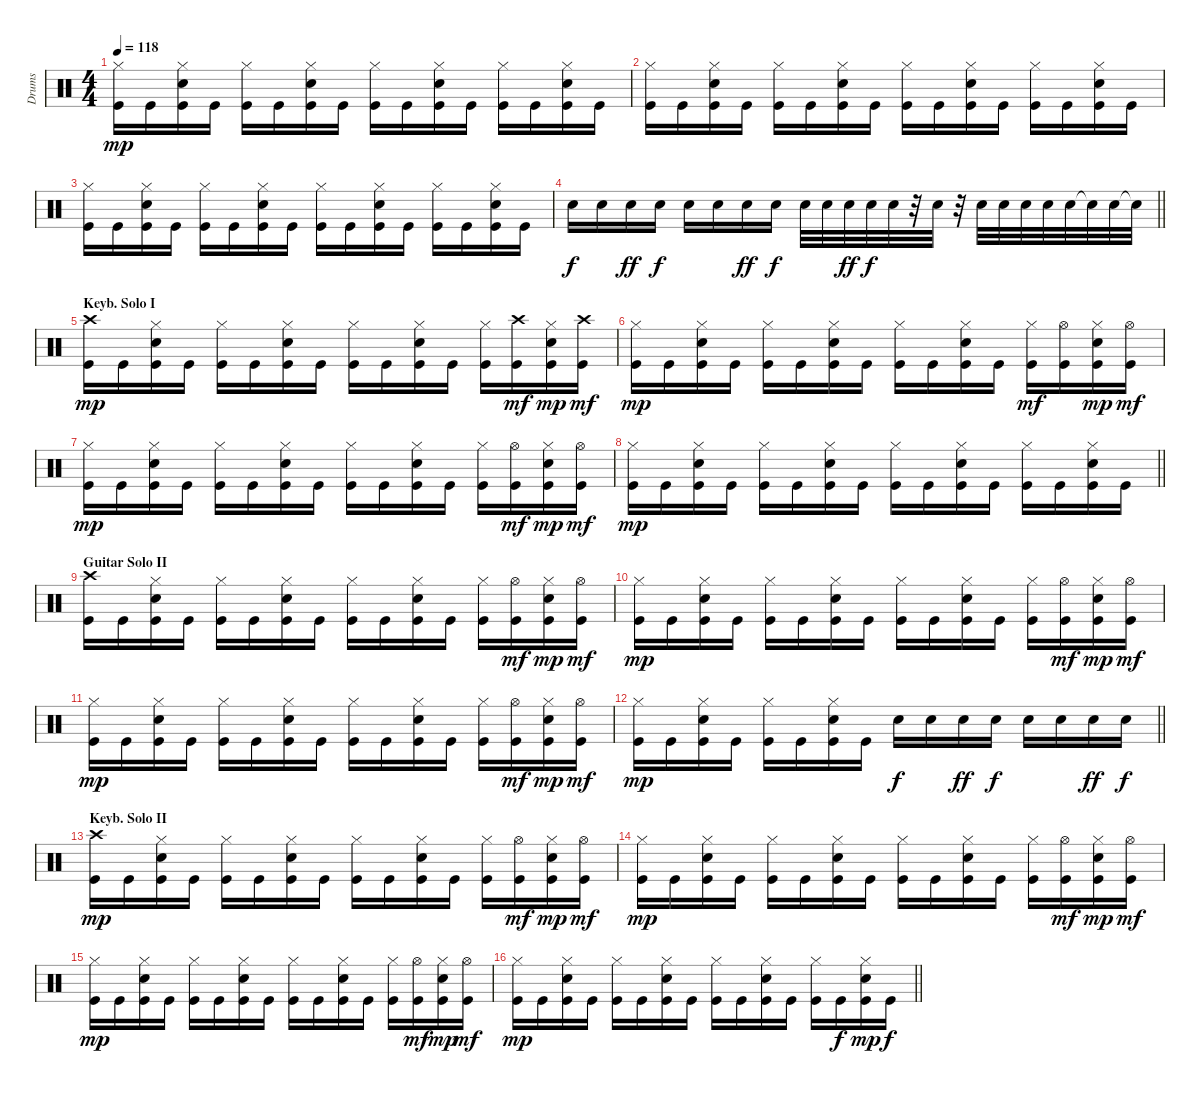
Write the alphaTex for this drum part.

\track ("Drums" "Drums") {instrument percussion}
\staff {score}
\articulation defaults
\ts (4 4)
\tempo 118
\clef neutral
\ks c
("Hi-Hat (closed)" "Kick (hit)").16{dy mp} "Kick (hit)".16 ("Hi-Hat (closed)" "Electric Snare (hit)" "Kick (hit)").16 "Kick (hit)".16 ("Hi-Hat (closed)" "Kick (hit)").16 "Kick (hit)".16 ("Hi-Hat (closed)" "Electric Snare (hit)" "Kick (hit)").16 "Kick (hit)".16 ("Hi-Hat (closed)" "Kick (hit)").16 "Kick (hit)".16 ("Hi-Hat (closed)" "Electric Snare (hit)" "Kick (hit)").16 "Kick (hit)".16 ("Hi-Hat (closed)" "Kick (hit)").16 "Kick (hit)".16 ("Hi-Hat (closed)" "Electric Snare (hit)" "Kick (hit)").16 "Kick (hit)".16 |
("Hi-Hat (closed)" "Kick (hit)").16 "Kick (hit)".16 ("Hi-Hat (closed)" "Electric Snare (hit)" "Kick (hit)").16 "Kick (hit)".16 ("Hi-Hat (closed)" "Kick (hit)").16 "Kick (hit)".16 ("Hi-Hat (closed)" "Electric Snare (hit)" "Kick (hit)").16 "Kick (hit)".16 ("Hi-Hat (closed)" "Kick (hit)").16 "Kick (hit)".16 ("Hi-Hat (closed)" "Electric Snare (hit)" "Kick (hit)").16 "Kick (hit)".16 ("Hi-Hat (closed)" "Kick (hit)").16 "Kick (hit)".16 ("Hi-Hat (closed)" "Electric Snare (hit)" "Kick (hit)").16 "Kick (hit)".16 |
("Hi-Hat (closed)" "Kick (hit)").16 "Kick (hit)".16 ("Hi-Hat (closed)" "Electric Snare (hit)" "Kick (hit)").16 "Kick (hit)".16 ("Hi-Hat (closed)" "Kick (hit)").16 "Kick (hit)".16 ("Hi-Hat (closed)" "Electric Snare (hit)" "Kick (hit)").16 "Kick (hit)".16 ("Hi-Hat (closed)" "Kick (hit)").16 "Kick (hit)".16 ("Hi-Hat (closed)" "Electric Snare (hit)" "Kick (hit)").16 "Kick (hit)".16 ("Hi-Hat (closed)" "Kick (hit)").16 "Kick (hit)".16 ("Hi-Hat (closed)" "Electric Snare (hit)" "Kick (hit)").16 "Kick (hit)".16 |
\barLineRight lightlight "Electric Snare (hit)".16{dy f} "Electric Snare (hit)".16 "Electric Snare (hit)".16{dy ff} "Electric Snare (hit)".16{dy f} "Electric Snare (hit)".16 "Electric Snare (hit)".16 "Electric Snare (hit)".16{dy ff} "Electric Snare (hit)".16{dy f} "Electric Snare (hit)".32 "Electric Snare (hit)".32 "Electric Snare (hit)".32{dy ff} "Electric Snare (hit)".32{dy f} "Electric Snare (hit)".32
r.32 "Electric Snare (hit)".32 r.32 "Electric Snare (hit)".32 "Electric Snare (hit)".32 "Electric Snare (hit)".32 "Electric Snare (hit)".32 "Electric Snare (hit)".32 "Electric Snare (hit)"{t}.32 "Electric Snare (hit)".32 "Snare (hit)"{t}.32 |
\section ("" "Keyb. Solo I")
("Crash high (hit)" "Kick (hit)").16{dy mp} "Kick (hit)".16 ("Hi-Hat (closed)" "Electric Snare (hit)" "Kick (hit)").16 "Kick (hit)".16 ("Hi-Hat (closed)" "Kick (hit)").16 "Kick (hit)".16 ("Hi-Hat (closed)" "Electric Snare (hit)" "Kick (hit)").16 "Kick (hit)".16 ("Hi-Hat (closed)" "Kick (hit)").16 "Kick (hit)".16 ("Hi-Hat (closed)" "Electric Snare (hit)" "Kick (hit)").16 "Kick (hit)".16 ("Hi-Hat (closed)" "Kick (hit)").16 ("Crash high (hit)" "Kick (hit)").16{dy mf} ("Hi-Hat (closed)" "Electric Snare (hit)" "Kick (hit)").16{dy mp} ("Crash high (hit)" "Kick (hit)").16{dy mf} |
("Hi-Hat (closed)" "Kick (hit)").16{dy mp} "Kick (hit)".16 ("Hi-Hat (closed)" "Electric Snare (hit)" "Kick (hit)").16 "Kick (hit)".16 ("Hi-Hat (closed)" "Kick (hit)").16 "Kick (hit)".16 ("Hi-Hat (closed)" "Electric Snare (hit)" "Kick (hit)").16 "Kick (hit)".16 ("Hi-Hat (closed)" "Kick (hit)").16 "Kick (hit)".16 ("Hi-Hat (closed)" "Electric Snare (hit)" "Kick (hit)").16 "Kick (hit)".16 ("Hi-Hat (closed)" "Kick (hit)").16{dy mf} ("Hi-Hat (open)" "Kick (hit)").16 ("Hi-Hat (closed)" "Electric Snare (hit)" "Kick (hit)").16{dy mp} ("Hi-Hat (open)" "Kick (hit)").16{dy mf} |
("Hi-Hat (closed)" "Kick (hit)").16{dy mp} "Kick (hit)".16 ("Hi-Hat (closed)" "Electric Snare (hit)" "Kick (hit)").16 "Kick (hit)".16 ("Hi-Hat (closed)" "Kick (hit)").16 "Kick (hit)".16 ("Hi-Hat (closed)" "Electric Snare (hit)" "Kick (hit)").16 "Kick (hit)".16 ("Hi-Hat (closed)" "Kick (hit)").16 "Kick (hit)".16 ("Hi-Hat (closed)" "Electric Snare (hit)" "Kick (hit)").16 "Kick (hit)".16 ("Hi-Hat (closed)" "Kick (hit)").16 ("Hi-Hat (open)" "Kick (hit)").16{dy mf} ("Hi-Hat (closed)" "Electric Snare (hit)" "Kick (hit)").16{dy mp} ("Hi-Hat (open)" "Kick (hit)").16{dy mf} |
\barLineRight lightlight
("Hi-Hat (closed)" "Kick (hit)").16{dy mp} "Kick (hit)".16 ("Hi-Hat (closed)" "Electric Snare (hit)" "Kick (hit)").16 "Kick (hit)".16 ("Hi-Hat (closed)" "Kick (hit)").16 "Kick (hit)".16 ("Hi-Hat (closed)" "Electric Snare (hit)" "Kick (hit)").16 "Kick (hit)".16 ("Hi-Hat (closed)" "Kick (hit)").16 "Kick (hit)".16 ("Hi-Hat (closed)" "Electric Snare (hit)" "Kick (hit)").16 "Kick (hit)".16 ("Hi-Hat (closed)" "Kick (hit)").16 "Kick (hit)".16 ("Hi-Hat (closed)" "Electric Snare (hit)" "Kick (hit)").16 "Kick (hit)".16 |
\section ("" "Guitar Solo II")
("Crash high (hit)" "Kick (hit)").16 "Kick (hit)".16 ("Hi-Hat (closed)" "Electric Snare (hit)" "Kick (hit)").16 "Kick (hit)".16 ("Hi-Hat (closed)" "Kick (hit)").16 "Kick (hit)".16 ("Hi-Hat (closed)" "Electric Snare (hit)" "Kick (hit)").16 "Kick (hit)".16 ("Hi-Hat (closed)" "Kick (hit)").16 "Kick (hit)".16 ("Hi-Hat (closed)" "Electric Snare (hit)" "Kick (hit)").16 "Kick (hit)".16 ("Hi-Hat (closed)" "Kick (hit)").16 ("Hi-Hat (open)" "Kick (hit)").16{dy mf} ("Hi-Hat (closed)" "Electric Snare (hit)" "Kick (hit)").16{dy mp} ("Hi-Hat (open)" "Kick (hit)").16{dy mf} |
("Hi-Hat (closed)" "Kick (hit)").16{dy mp} "Kick (hit)".16 ("Hi-Hat (closed)" "Electric Snare (hit)" "Kick (hit)").16 "Kick (hit)".16 ("Hi-Hat (closed)" "Kick (hit)").16 "Kick (hit)".16 ("Hi-Hat (closed)" "Electric Snare (hit)" "Kick (hit)").16 "Kick (hit)".16 ("Hi-Hat (closed)" "Kick (hit)").16 "Kick (hit)".16 ("Hi-Hat (closed)" "Electric Snare (hit)" "Kick (hit)").16 "Kick (hit)".16 ("Hi-Hat (closed)" "Kick (hit)").16 ("Hi-Hat (open)" "Kick (hit)").16{dy mf} ("Hi-Hat (closed)" "Electric Snare (hit)" "Kick (hit)").16{dy mp} ("Hi-Hat (open)" "Kick (hit)").16{dy mf} |
("Hi-Hat (closed)" "Kick (hit)").16{dy mp} "Kick (hit)".16 ("Hi-Hat (closed)" "Electric Snare (hit)" "Kick (hit)").16 "Kick (hit)".16 ("Hi-Hat (closed)" "Kick (hit)").16 "Kick (hit)".16 ("Hi-Hat (closed)" "Electric Snare (hit)" "Kick (hit)").16 "Kick (hit)".16 ("Hi-Hat (closed)" "Kick (hit)").16 "Kick (hit)".16 ("Hi-Hat (closed)" "Electric Snare (hit)" "Kick (hit)").16 "Kick (hit)".16 ("Hi-Hat (closed)" "Kick (hit)").16 ("Hi-Hat (open)" "Kick (hit)").16{dy mf} ("Hi-Hat (closed)" "Electric Snare (hit)" "Kick (hit)").16{dy mp} ("Hi-Hat (open)" "Kick (hit)").16{dy mf} |
\barLineRight lightlight
("Hi-Hat (closed)" "Kick (hit)").16{dy mp} "Kick (hit)".16 ("Hi-Hat (closed)" "Electric Snare (hit)" "Kick (hit)").16 "Kick (hit)".16 ("Hi-Hat (closed)" "Kick (hit)").16 "Kick (hit)".16 ("Hi-Hat (closed)" "Electric Snare (hit)" "Kick (hit)").16 "Kick (hit)".16 "Snare (hit) 2".16{dy f} "Snare (hit) 2".16 "Snare (hit) 2".16{dy ff} "Snare (hit) 2".16{dy f} "Snare (hit) 2".16 "Snare (hit) 2".16 "Snare (hit) 2".16{dy ff} "Snare (hit) 2".16{dy f} |
\section ("" "Keyb. Solo II")
("Crash high (hit)" "Kick (hit)").16{dy mp} "Kick (hit)".16 ("Hi-Hat (closed)" "Electric Snare (hit)" "Kick (hit)").16 "Kick (hit)".16 ("Hi-Hat (closed)" "Kick (hit)").16 "Kick (hit)".16 ("Hi-Hat (closed)" "Electric Snare (hit)" "Kick (hit)").16 "Kick (hit)".16 ("Hi-Hat (closed)" "Kick (hit)").16 "Kick (hit)".16 ("Hi-Hat (closed)" "Electric Snare (hit)" "Kick (hit)").16 "Kick (hit)".16 ("Hi-Hat (closed)" "Kick (hit)").16 ("Hi-Hat (open)" "Kick (hit)").16{dy mf} ("Hi-Hat (closed)" "Electric Snare (hit)" "Kick (hit)").16{dy mp} ("Hi-Hat (open)" "Kick (hit)").16{dy mf} |
("Hi-Hat (closed)" "Kick (hit)").16{dy mp} "Kick (hit)".16 ("Hi-Hat (closed)" "Electric Snare (hit)" "Kick (hit)").16 "Kick (hit)".16 ("Hi-Hat (closed)" "Kick (hit)").16 "Kick (hit)".16 ("Hi-Hat (closed)" "Electric Snare (hit)" "Kick (hit)").16 "Kick (hit)".16 ("Hi-Hat (closed)" "Kick (hit)").16 "Kick (hit)".16 ("Hi-Hat (closed)" "Electric Snare (hit)" "Kick (hit)").16 "Kick (hit)".16 ("Hi-Hat (closed)" "Kick (hit)").16 ("Hi-Hat (open)" "Kick (hit)").16{dy mf} ("Hi-Hat (closed)" "Electric Snare (hit)" "Kick (hit)").16{dy mp} ("Hi-Hat (open)" "Kick (hit)").16{dy mf} |
("Hi-Hat (closed)" "Kick (hit)").16{dy mp} "Kick (hit)".16 ("Hi-Hat (closed)" "Electric Snare (hit)" "Kick (hit)").16 "Kick (hit)".16 ("Hi-Hat (closed)" "Kick (hit)").16 "Kick (hit)".16 ("Hi-Hat (closed)" "Electric Snare (hit)" "Kick (hit)").16 "Kick (hit)".16 ("Hi-Hat (closed)" "Kick (hit)").16 "Kick (hit)".16 ("Hi-Hat (closed)" "Electric Snare (hit)" "Kick (hit)").16 "Kick (hit)".16 ("Hi-Hat (closed)" "Kick (hit)").16 ("Hi-Hat (open)" "Kick (hit)").16{dy mf} ("Hi-Hat (closed)" "Electric Snare (hit)" "Kick (hit)").16{dy mp} ("Hi-Hat (open)" "Kick (hit)").16{dy mf} |
\barLineRight lightlight
("Hi-Hat (closed)" "Kick (hit)").16{dy mp} "Kick (hit)".16 ("Hi-Hat (closed)" "Electric Snare (hit)" "Kick (hit)").16 "Kick (hit)".16 ("Hi-Hat (closed)" "Kick (hit)").16 "Kick (hit)".16 ("Hi-Hat (closed)" "Electric Snare (hit)" "Kick (hit)").16 "Kick (hit)".16 ("Hi-Hat (closed)" "Kick (hit)").16 "Kick (hit)".16 ("Hi-Hat (closed)" "Electric Snare (hit)" "Kick (hit)").16 "Kick (hit)".16 ("Hi-Hat (closed)" "Kick (hit)").16 "Kick (hit)".16{dy f} ("Hi-Hat (closed)" "Electric Snare (hit)" "Kick (hit)").16{dy mp} "Kick (hit)".16{dy f}
